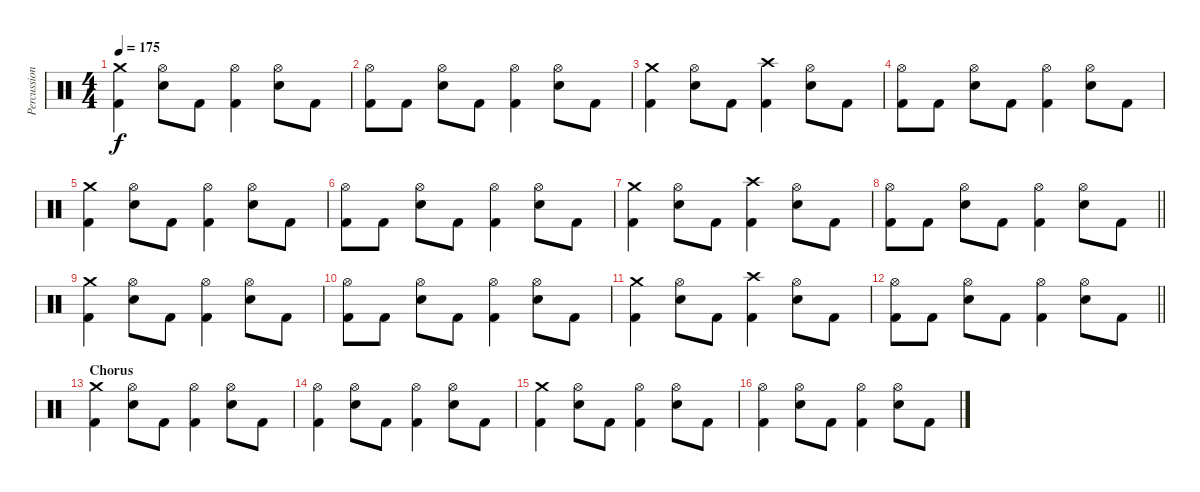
\track ("Percussion" "Percussion") {instrument percussion}
\staff {score}
\articulation defaults
\ts (4 4)
\tempo 175
\clef neutral
\ks c
("Crash medium (hit)" "Kick (hit) 2").4{dy f} ("Hi-Hat (open)" "Electric Snare (hit)").8 "Kick (hit) 2".8 ("Hi-Hat (open)" "Kick (hit) 2").4 ("Hi-Hat (open)" "Electric Snare (hit)").8 "Kick (hit) 2".8 |
("Hi-Hat (open)" "Kick (hit) 2").8 "Kick (hit) 2".8 ("Hi-Hat (open)" "Electric Snare (hit)").8 "Kick (hit) 2".8 ("Hi-Hat (open)" "Kick (hit) 2").4 ("Hi-Hat (open)" "Electric Snare (hit)").8 "Kick (hit) 2".8 |
("Crash medium (hit)" "Kick (hit) 2").4 ("Hi-Hat (open)" "Electric Snare (hit)").8 "Kick (hit) 2".8 ("Crash high (hit)" "Kick (hit) 2").4 ("Hi-Hat (open)" "Electric Snare (hit)").8 "Kick (hit) 2".8 |
("Hi-Hat (open)" "Kick (hit) 2").8 "Kick (hit) 2".8 ("Hi-Hat (open)" "Electric Snare (hit)").8 "Kick (hit) 2".8 ("Hi-Hat (open)" "Kick (hit) 2").4 ("Hi-Hat (open)" "Electric Snare (hit)").8 "Kick (hit) 2".8 |
("Crash medium (hit)" "Kick (hit) 2").4 ("Hi-Hat (open)" "Electric Snare (hit)").8 "Kick (hit) 2".8 ("Hi-Hat (open)" "Kick (hit) 2").4 ("Hi-Hat (open)" "Electric Snare (hit)").8 "Kick (hit) 2".8 |
("Hi-Hat (open)" "Kick (hit) 2").8 "Kick (hit) 2".8 ("Hi-Hat (open)" "Electric Snare (hit)").8 "Kick (hit) 2".8 ("Hi-Hat (open)" "Kick (hit) 2").4 ("Hi-Hat (open)" "Electric Snare (hit)").8 "Kick (hit) 2".8 |
("Crash medium (hit)" "Kick (hit) 2").4 ("Hi-Hat (open)" "Electric Snare (hit)").8 "Kick (hit) 2".8 ("Crash high (hit)" "Kick (hit) 2").4 ("Hi-Hat (open)" "Electric Snare (hit)").8 "Kick (hit) 2".8 |
\barLineRight lightlight
("Hi-Hat (open)" "Kick (hit) 2").8 "Kick (hit) 2".8 ("Hi-Hat (open)" "Electric Snare (hit)").8 "Kick (hit) 2".8 ("Hi-Hat (open)" "Kick (hit) 2").4 ("Hi-Hat (open)" "Electric Snare (hit)").8 "Kick (hit) 2".8 |
("Crash medium (hit)" "Kick (hit) 2").4 ("Hi-Hat (open)" "Electric Snare (hit)").8 "Kick (hit) 2".8 ("Hi-Hat (open)" "Kick (hit) 2").4 ("Hi-Hat (open)" "Electric Snare (hit)").8 "Kick (hit) 2".8 |
("Hi-Hat (open)" "Kick (hit) 2").8 "Kick (hit) 2".8 ("Hi-Hat (open)" "Electric Snare (hit)").8 "Kick (hit) 2".8 ("Hi-Hat (open)" "Kick (hit) 2").4 ("Hi-Hat (open)" "Electric Snare (hit)").8 "Kick (hit) 2".8 |
("Crash medium (hit)" "Kick (hit) 2").4 ("Hi-Hat (open)" "Electric Snare (hit)").8 "Kick (hit) 2".8 ("Crash high (hit)" "Kick (hit) 2").4 ("Hi-Hat (open)" "Electric Snare (hit)").8 "Kick (hit) 2".8 |
\barLineRight lightlight
("Hi-Hat (open)" "Kick (hit) 2").8 "Kick (hit) 2".8 ("Hi-Hat (open)" "Electric Snare (hit)").8 "Kick (hit) 2".8 ("Hi-Hat (open)" "Kick (hit) 2").4 ("Hi-Hat (open)" "Electric Snare (hit)").8 "Kick (hit) 2".8 |
\section ("" "Chorus")
("Crash medium (hit)" "Kick (hit) 2").4 ("Hi-Hat (open)" "Electric Snare (hit)").8 "Kick (hit) 2".8 ("Hi-Hat (open)" "Kick (hit) 2").4 ("Hi-Hat (open)" "Electric Snare (hit)").8 "Kick (hit) 2".8 |
("Hi-Hat (open)" "Kick (hit) 2").4 ("Hi-Hat (open)" "Electric Snare (hit)").8 "Kick (hit) 2".8 ("Hi-Hat (open)" "Kick (hit) 2").4 ("Hi-Hat (open)" "Electric Snare (hit)").8 "Kick (hit) 2".8 |
("Crash medium (hit)" "Kick (hit) 2").4 ("Hi-Hat (open)" "Electric Snare (hit)").8 "Kick (hit) 2".8 ("Hi-Hat (open)" "Kick (hit) 2").4 ("Hi-Hat (open)" "Electric Snare (hit)").8 "Kick (hit) 2".8 |
("Hi-Hat (open)" "Kick (hit) 2").4 ("Hi-Hat (open)" "Electric Snare (hit)").8 "Kick (hit) 2".8 ("Hi-Hat (open)" "Kick (hit) 2").4 ("Hi-Hat (open)" "Electric Snare (hit)").8 "Kick (hit) 2".8
